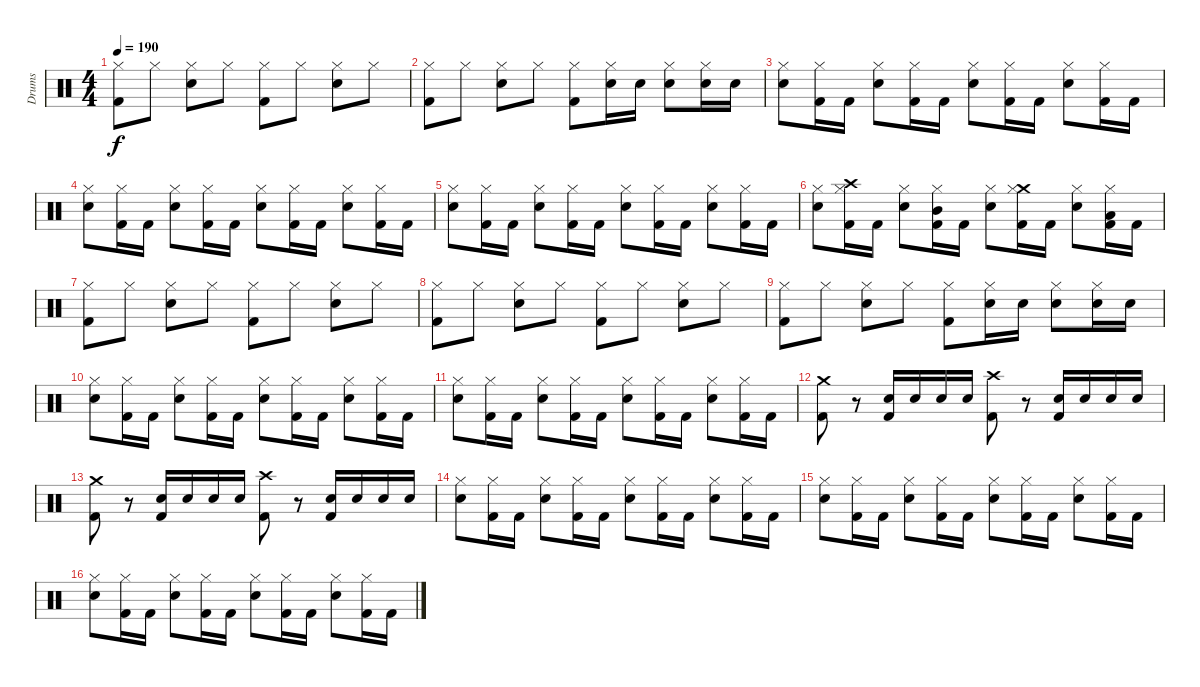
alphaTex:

\track ("Drums" "Drums") {instrument percussion}
\staff {score}
\articulation defaults
\ts (4 4)
\tempo 190
\clef neutral
\ks c
("Kick (hit) 2" "Hi-Hat (closed)").8{dy f} "Hi-Hat (closed)".8 ("Snare (hit) 2" "Hi-Hat (closed)").8 "Hi-Hat (closed)".8 ("Kick (hit) 2" "Hi-Hat (closed)").8 "Hi-Hat (closed)".8 ("Snare (hit) 2" "Hi-Hat (closed)").8 "Hi-Hat (closed)".8 |
("Kick (hit) 2" "Hi-Hat (closed)").8 "Hi-Hat (closed)".8 ("Snare (hit) 2" "Hi-Hat (closed)").8 "Hi-Hat (closed)".8 ("Kick (hit) 2" "Hi-Hat (closed)").8 ("Snare (hit) 2" "Hi-Hat (closed)").16 "Snare (hit) 2".16 ("Snare (hit) 2" "Hi-Hat (closed)").8 ("Snare (hit) 2" "Hi-Hat (closed)").16 "Snare (hit) 2".16 |
("Snare (hit) 2" "Hi-Hat (closed)").8 ("Kick (hit) 2" "Hi-Hat (closed)").16 "Kick (hit) 2".16 ("Snare (hit) 2" "Hi-Hat (closed)").8 ("Kick (hit) 2" "Hi-Hat (closed)").16 "Kick (hit) 2".16 ("Snare (hit) 2" "Hi-Hat (closed)").8 ("Kick (hit) 2" "Hi-Hat (closed)").16 "Kick (hit) 2".16 ("Snare (hit) 2" "Hi-Hat (closed)").8 ("Kick (hit) 2" "Hi-Hat (closed)").16 "Kick (hit) 2".16 |
("Snare (hit) 2" "Hi-Hat (closed)").8 ("Kick (hit) 2" "Hi-Hat (closed)").16 "Kick (hit) 2".16 ("Snare (hit) 2" "Hi-Hat (closed)").8 ("Kick (hit) 2" "Hi-Hat (closed)").16 "Kick (hit) 2".16 ("Snare (hit) 2" "Hi-Hat (closed)").8 ("Kick (hit) 2" "Hi-Hat (closed)").16 "Kick (hit) 2".16 ("Snare (hit) 2" "Hi-Hat (closed)").8 ("Kick (hit) 2" "Hi-Hat (closed)").16 "Kick (hit) 2".16 |
("Snare (hit) 2" "Hi-Hat (closed)").8 ("Kick (hit) 2" "Hi-Hat (closed)").16 "Kick (hit) 2".16 ("Snare (hit) 2" "Hi-Hat (closed)").8 ("Kick (hit) 2" "Hi-Hat (closed)").16 "Kick (hit) 2".16 ("Snare (hit) 2" "Hi-Hat (closed)").8 ("Kick (hit) 2" "Hi-Hat (closed)").16 "Kick (hit) 2".16 ("Snare (hit) 2" "Hi-Hat (closed)").8 ("Kick (hit) 2" "Hi-Hat (closed)").16 "Kick (hit) 2".16 |
("Snare (hit) 2" "Hi-Hat (closed)").8 ("Kick (hit) 2" "Crash high (hit)" "Hi-Hat (closed)").16 "Kick (hit) 2".16 ("Snare (hit) 2" "Hi-Hat (closed)").8 ("Kick (hit) 2" "Mid Tom (hit)" "Hi-Hat (closed)").16 "Kick (hit) 2".16 ("Snare (hit) 2" "Hi-Hat (closed)").8 ("Kick (hit) 2" "Crash medium (hit)" "Hi-Hat (closed)").16 "Kick (hit) 2".16 ("Snare (hit) 2" "Hi-Hat (closed)").8 ("Kick (hit) 2" "Low Tom (hit)" "Hi-Hat (closed)").16 "Kick (hit) 2".16 |
("Kick (hit) 2" "Hi-Hat (closed)").8 "Hi-Hat (closed)".8 ("Snare (hit) 2" "Hi-Hat (closed)").8 "Hi-Hat (closed)".8 ("Kick (hit) 2" "Hi-Hat (closed)").8 "Hi-Hat (closed)".8 ("Snare (hit) 2" "Hi-Hat (closed)").8 "Hi-Hat (closed)".8 |
("Kick (hit) 2" "Hi-Hat (closed)").8 "Hi-Hat (closed)".8 ("Snare (hit) 2" "Hi-Hat (closed)").8 "Hi-Hat (closed)".8 ("Kick (hit) 2" "Hi-Hat (closed)").8 "Hi-Hat (closed)".8 ("Snare (hit) 2" "Hi-Hat (closed)").8 "Hi-Hat (closed)".8 |
("Kick (hit) 2" "Hi-Hat (closed)").8 "Hi-Hat (closed)".8 ("Snare (hit) 2" "Hi-Hat (closed)").8 "Hi-Hat (closed)".8 ("Kick (hit) 2" "Hi-Hat (closed)").8 ("Snare (hit) 2" "Hi-Hat (closed)").16 "Snare (hit) 2".16 ("Snare (hit) 2" "Hi-Hat (closed)").8 ("Snare (hit) 2" "Hi-Hat (closed)").16 "Snare (hit) 2".16 |
("Snare (hit) 2" "Hi-Hat (closed)").8 ("Kick (hit) 2" "Hi-Hat (closed)").16 "Kick (hit) 2".16 ("Snare (hit) 2" "Hi-Hat (closed)").8 ("Kick (hit) 2" "Hi-Hat (closed)").16 "Kick (hit) 2".16 ("Snare (hit) 2" "Hi-Hat (closed)").8 ("Kick (hit) 2" "Hi-Hat (closed)").16 "Kick (hit) 2".16 ("Snare (hit) 2" "Hi-Hat (closed)").8 ("Kick (hit) 2" "Hi-Hat (closed)").16 "Kick (hit) 2".16 |
("Snare (hit) 2" "Hi-Hat (closed)").8 ("Kick (hit) 2" "Hi-Hat (closed)").16 "Kick (hit) 2".16 ("Snare (hit) 2" "Hi-Hat (closed)").8 ("Kick (hit) 2" "Hi-Hat (closed)").16 "Kick (hit) 2".16 ("Snare (hit) 2" "Hi-Hat (closed)").8 ("Kick (hit) 2" "Hi-Hat (closed)").16 "Kick (hit) 2".16 ("Snare (hit) 2" "Hi-Hat (closed)").8 ("Kick (hit) 2" "Hi-Hat (closed)").16 "Kick (hit) 2".16 |
("Crash medium (hit)" "Kick (hit) 2").8 r.8 ("Snare (hit) 2" "Kick (hit) 2").16 "Snare (hit) 2".16 "Snare (hit) 2".16 "Snare (hit) 2".16 ("Crash high (hit)" "Kick (hit) 2").8 r.8 ("Snare (hit) 2" "Kick (hit) 2").16 "Snare (hit) 2".16 "Snare (hit) 2".16 "Snare (hit) 2".16 |
("Crash medium (hit)" "Kick (hit) 2").8 r.8 ("Snare (hit) 2" "Kick (hit) 2").16 "Snare (hit) 2".16 "Snare (hit) 2".16 "Snare (hit) 2".16 ("Crash high (hit)" "Kick (hit) 2").8 r.8 ("Snare (hit) 2" "Kick (hit) 2").16 "Snare (hit) 2".16 "Snare (hit) 2".16 "Snare (hit) 2".16 |
("Snare (hit) 2" "Hi-Hat (closed)").8 ("Kick (hit) 2" "Hi-Hat (closed)").16 "Kick (hit) 2".16 ("Snare (hit) 2" "Hi-Hat (closed)").8 ("Kick (hit) 2" "Hi-Hat (closed)").16 "Kick (hit) 2".16 ("Snare (hit) 2" "Hi-Hat (closed)").8 ("Kick (hit) 2" "Hi-Hat (closed)").16 "Kick (hit) 2".16 ("Snare (hit) 2" "Hi-Hat (closed)").8 ("Kick (hit) 2" "Hi-Hat (closed)").16 "Kick (hit) 2".16 |
("Snare (hit) 2" "Hi-Hat (closed)").8 ("Kick (hit) 2" "Hi-Hat (closed)").16 "Kick (hit) 2".16 ("Snare (hit) 2" "Hi-Hat (closed)").8 ("Kick (hit) 2" "Hi-Hat (closed)").16 "Kick (hit) 2".16 ("Snare (hit) 2" "Hi-Hat (closed)").8 ("Kick (hit) 2" "Hi-Hat (closed)").16 "Kick (hit) 2".16 ("Snare (hit) 2" "Hi-Hat (closed)").8 ("Kick (hit) 2" "Hi-Hat (closed)").16 "Kick (hit) 2".16 |
("Snare (hit) 2" "Hi-Hat (closed)").8 ("Kick (hit) 2" "Hi-Hat (closed)").16 "Kick (hit) 2".16 ("Snare (hit) 2" "Hi-Hat (closed)").8 ("Kick (hit) 2" "Hi-Hat (closed)").16 "Kick (hit) 2".16 ("Snare (hit) 2" "Hi-Hat (closed)").8 ("Kick (hit) 2" "Hi-Hat (closed)").16 "Kick (hit) 2".16 ("Snare (hit) 2" "Hi-Hat (closed)").8 ("Kick (hit) 2" "Hi-Hat (closed)").16 "Kick (hit) 2".16
